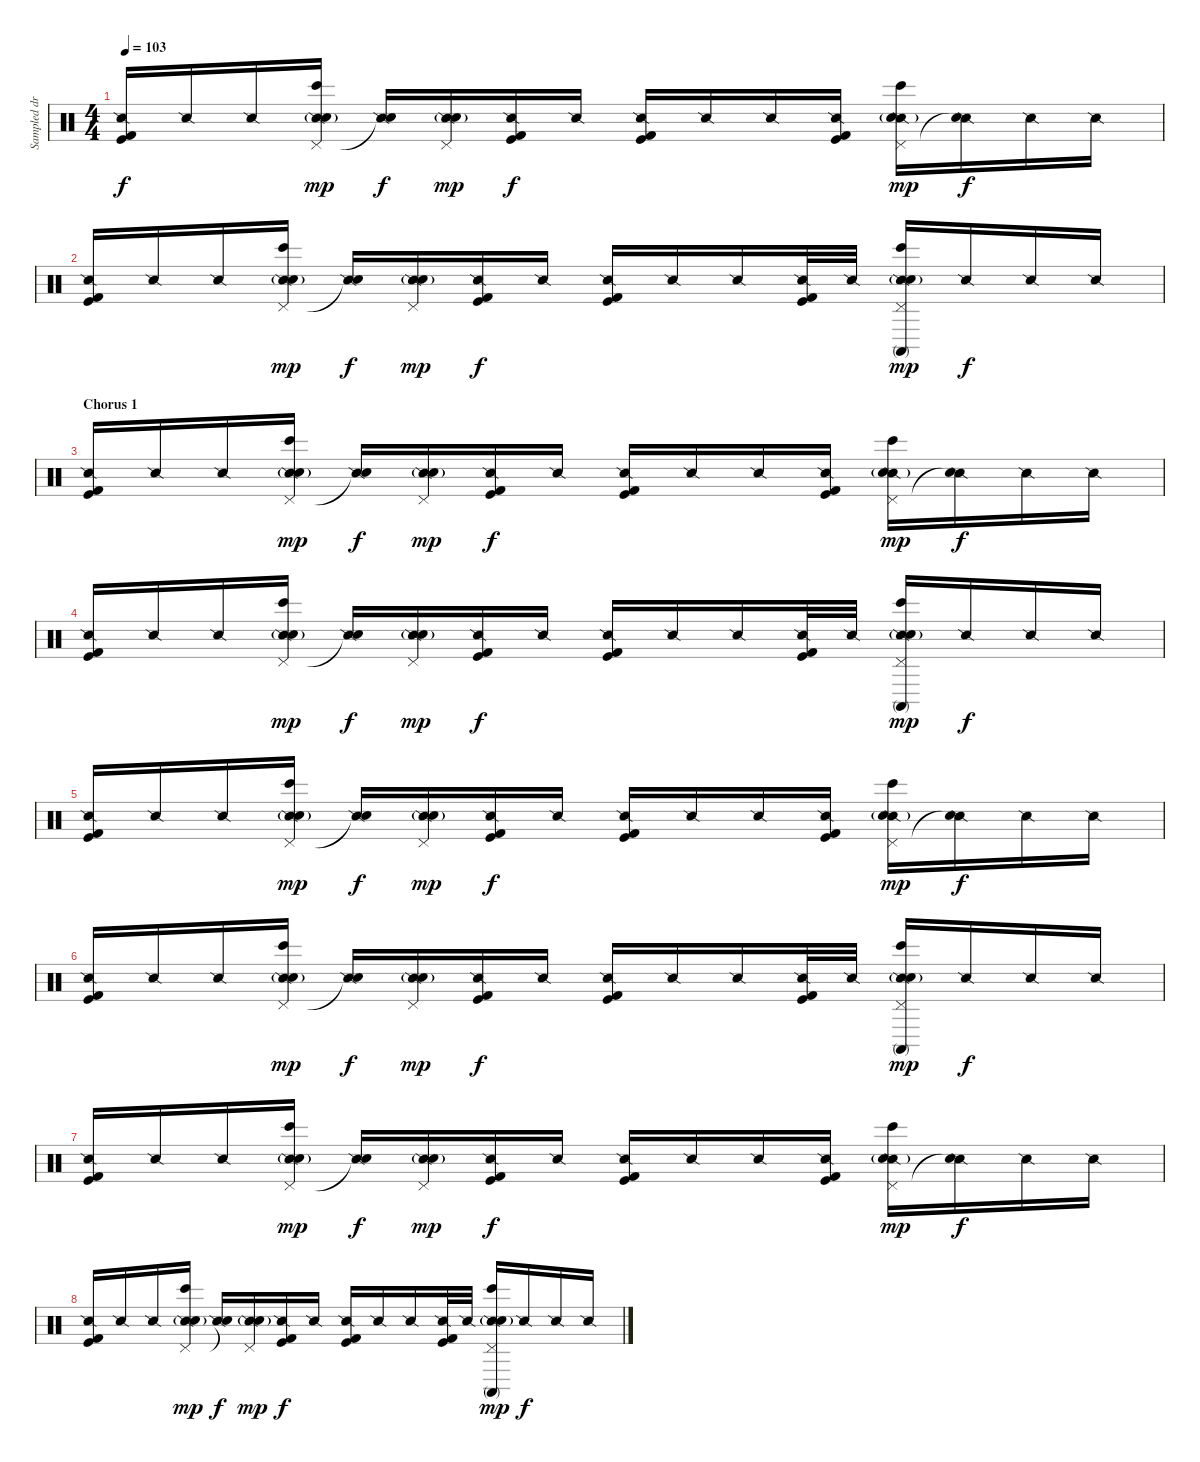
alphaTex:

\track ("Sampled drums (Rob with Joe)" "Sampled dr") {instrument percussion}
\staff {score}
\articulation defaults
\ts (4 4)
\tempo 103
\clef neutral
\ks c
("Snare (side stick) 2" "Kick (hit)" "Kick (hit) 2").16{dy f} "Snare (side stick) 2".16 "Snare (side stick) 2".16 ("Snare (side stick) 2" "Pedal Hi-Hat (hit)" "Bongo High (hit)" "Snare (hit) 2"{g}).16{dy mp} ("Snare (side stick) 2" "Snare (hit)"{t}).16{dy f} ("Snare (side stick) 2" "Pedal Hi-Hat (hit)" "Snare (hit) 2"{g}).16{dy mp} ("Snare (side stick) 2" "Kick (hit)" "Kick (hit) 2").16{dy f} "Snare (side stick) 2".16 ("Snare (side stick) 2" "Kick (hit)" "Kick (hit) 2").16 "Snare (side stick) 2".16 "Snare (side stick) 2".16 ("Snare (side stick) 2" "Kick (hit)" "Kick (hit) 2").16 ("Snare (side stick) 2" "Pedal Hi-Hat (hit)" "Bongo High (hit)" "Snare (hit) 2"{g}).16{dy mp} ("Snare (side stick) 2" "Snare (hit)"{t}).16{dy f} "Snare (side stick) 2".16 "Snare (side stick) 2".16 |
("Snare (side stick) 2" "Kick (hit)" "Kick (hit) 2").16 "Snare (side stick) 2".16 "Snare (side stick) 2".16 ("Snare (side stick) 2" "Pedal Hi-Hat (hit)" "Bongo High (hit)" "Snare (hit) 2"{g}).16{dy mp} ("Snare (side stick) 2" "Snare (hit)"{t}).16{dy f} ("Snare (side stick) 2" "Pedal Hi-Hat (hit)" "Snare (hit) 2"{g}).16{dy mp} ("Snare (side stick) 2" "Kick (hit)" "Kick (hit) 2").16{dy f} "Snare (side stick) 2".16 ("Snare (side stick) 2" "Kick (hit)" "Kick (hit) 2").16 "Snare (side stick) 2".16 "Snare (side stick) 2".16 ("Snare (side stick) 2" "Kick (hit)" "Kick (hit) 2").32 "Snare (side stick) 2".32 ("Snare (side stick) 2" "Pedal Hi-Hat (hit)" "Conga high (mute)" "Bongo High (hit)" "Snare (hit) 2"{g}).16{dy mp} "Snare (side stick) 2".16{dy f} "Snare (side stick) 2".16 "Snare (side stick) 2".16 |
\section ("" "Chorus 1")
("Snare (side stick) 2" "Kick (hit)" "Kick (hit) 2").16 "Snare (side stick) 2".16 "Snare (side stick) 2".16 ("Snare (side stick) 2" "Pedal Hi-Hat (hit)" "Bongo High (hit)" "Snare (hit) 2"{g}).16{dy mp} ("Snare (side stick) 2" "Snare (hit)"{t}).16{dy f} ("Snare (side stick) 2" "Pedal Hi-Hat (hit)" "Snare (hit) 2"{g}).16{dy mp} ("Snare (side stick) 2" "Kick (hit)" "Kick (hit) 2").16{dy f} "Snare (side stick) 2".16 ("Snare (side stick) 2" "Kick (hit)" "Kick (hit) 2").16 "Snare (side stick) 2".16 "Snare (side stick) 2".16 ("Snare (side stick) 2" "Kick (hit)" "Kick (hit) 2").16 ("Snare (side stick) 2" "Pedal Hi-Hat (hit)" "Bongo High (hit)" "Snare (hit) 2"{g}).16{dy mp} ("Snare (side stick) 2" "Snare (hit)"{t}).16{dy f} "Snare (side stick) 2".16 "Snare (side stick) 2".16 |
("Snare (side stick) 2" "Kick (hit)" "Kick (hit) 2").16 "Snare (side stick) 2".16 "Snare (side stick) 2".16 ("Snare (side stick) 2" "Pedal Hi-Hat (hit)" "Bongo High (hit)" "Snare (hit) 2"{g}).16{dy mp} ("Snare (side stick) 2" "Snare (hit)"{t}).16{dy f} ("Snare (side stick) 2" "Pedal Hi-Hat (hit)" "Snare (hit) 2"{g}).16{dy mp} ("Snare (side stick) 2" "Kick (hit)" "Kick (hit) 2").16{dy f} "Snare (side stick) 2".16 ("Snare (side stick) 2" "Kick (hit)" "Kick (hit) 2").16 "Snare (side stick) 2".16 "Snare (side stick) 2".16 ("Snare (side stick) 2" "Kick (hit)" "Kick (hit) 2").32 "Snare (side stick) 2".32 ("Snare (side stick) 2" "Pedal Hi-Hat (hit)" "Conga high (mute)" "Bongo High (hit)" "Snare (hit) 2"{g}).16{dy mp} "Snare (side stick) 2".16{dy f} "Snare (side stick) 2".16 "Snare (side stick) 2".16 |
("Snare (side stick) 2" "Kick (hit)" "Kick (hit) 2").16 "Snare (side stick) 2".16 "Snare (side stick) 2".16 ("Snare (side stick) 2" "Pedal Hi-Hat (hit)" "Bongo High (hit)" "Snare (hit) 2"{g}).16{dy mp} ("Snare (side stick) 2" "Snare (hit)"{t}).16{dy f} ("Snare (side stick) 2" "Pedal Hi-Hat (hit)" "Snare (hit) 2"{g}).16{dy mp} ("Snare (side stick) 2" "Kick (hit)" "Kick (hit) 2").16{dy f} "Snare (side stick) 2".16 ("Snare (side stick) 2" "Kick (hit)" "Kick (hit) 2").16 "Snare (side stick) 2".16 "Snare (side stick) 2".16 ("Snare (side stick) 2" "Kick (hit)" "Kick (hit) 2").16 ("Snare (side stick) 2" "Pedal Hi-Hat (hit)" "Bongo High (hit)" "Snare (hit) 2"{g}).16{dy mp} ("Snare (side stick) 2" "Snare (hit)"{t}).16{dy f} "Snare (side stick) 2".16 "Snare (side stick) 2".16 |
("Snare (side stick) 2" "Kick (hit)" "Kick (hit) 2").16 "Snare (side stick) 2".16 "Snare (side stick) 2".16 ("Snare (side stick) 2" "Pedal Hi-Hat (hit)" "Bongo High (hit)" "Snare (hit) 2"{g}).16{dy mp} ("Snare (side stick) 2" "Snare (hit)"{t}).16{dy f} ("Snare (side stick) 2" "Pedal Hi-Hat (hit)" "Snare (hit) 2"{g}).16{dy mp} ("Snare (side stick) 2" "Kick (hit)" "Kick (hit) 2").16{dy f} "Snare (side stick) 2".16 ("Snare (side stick) 2" "Kick (hit)" "Kick (hit) 2").16 "Snare (side stick) 2".16 "Snare (side stick) 2".16 ("Snare (side stick) 2" "Kick (hit)" "Kick (hit) 2").32 "Snare (side stick) 2".32 ("Snare (side stick) 2" "Pedal Hi-Hat (hit)" "Conga high (mute)" "Bongo High (hit)" "Snare (hit) 2"{g}).16{dy mp} "Snare (side stick) 2".16{dy f} "Snare (side stick) 2".16 "Snare (side stick) 2".16 |
("Snare (side stick) 2" "Kick (hit)" "Kick (hit) 2").16 "Snare (side stick) 2".16 "Snare (side stick) 2".16 ("Snare (side stick) 2" "Pedal Hi-Hat (hit)" "Bongo High (hit)" "Snare (hit) 2"{g}).16{dy mp} ("Snare (side stick) 2" "Snare (hit)"{t}).16{dy f} ("Snare (side stick) 2" "Pedal Hi-Hat (hit)" "Snare (hit) 2"{g}).16{dy mp} ("Snare (side stick) 2" "Kick (hit)" "Kick (hit) 2").16{dy f} "Snare (side stick) 2".16 ("Snare (side stick) 2" "Kick (hit)" "Kick (hit) 2").16 "Snare (side stick) 2".16 "Snare (side stick) 2".16 ("Snare (side stick) 2" "Kick (hit)" "Kick (hit) 2").16 ("Snare (side stick) 2" "Pedal Hi-Hat (hit)" "Bongo High (hit)" "Snare (hit) 2"{g}).16{dy mp} ("Snare (side stick) 2" "Snare (hit)"{t}).16{dy f} "Snare (side stick) 2".16 "Snare (side stick) 2".16 |
("Snare (side stick) 2" "Kick (hit)" "Kick (hit) 2").16 "Snare (side stick) 2".16 "Snare (side stick) 2".16 ("Snare (side stick) 2" "Pedal Hi-Hat (hit)" "Bongo High (hit)" "Snare (hit) 2"{g}).16{dy mp} ("Snare (side stick) 2" "Snare (hit)"{t}).16{dy f} ("Snare (side stick) 2" "Pedal Hi-Hat (hit)" "Snare (hit) 2"{g}).16{dy mp} ("Snare (side stick) 2" "Kick (hit)" "Kick (hit) 2").16{dy f} "Snare (side stick) 2".16 ("Snare (side stick) 2" "Kick (hit)" "Kick (hit) 2").16 "Snare (side stick) 2".16 "Snare (side stick) 2".16 ("Snare (side stick) 2" "Kick (hit)" "Kick (hit) 2").32 "Snare (side stick) 2".32 ("Snare (side stick) 2" "Pedal Hi-Hat (hit)" "Conga high (mute)" "Bongo High (hit)" "Snare (hit) 2"{g}).16{dy mp} "Snare (side stick) 2".16{dy f} "Snare (side stick) 2".16 "Snare (side stick) 2".16
